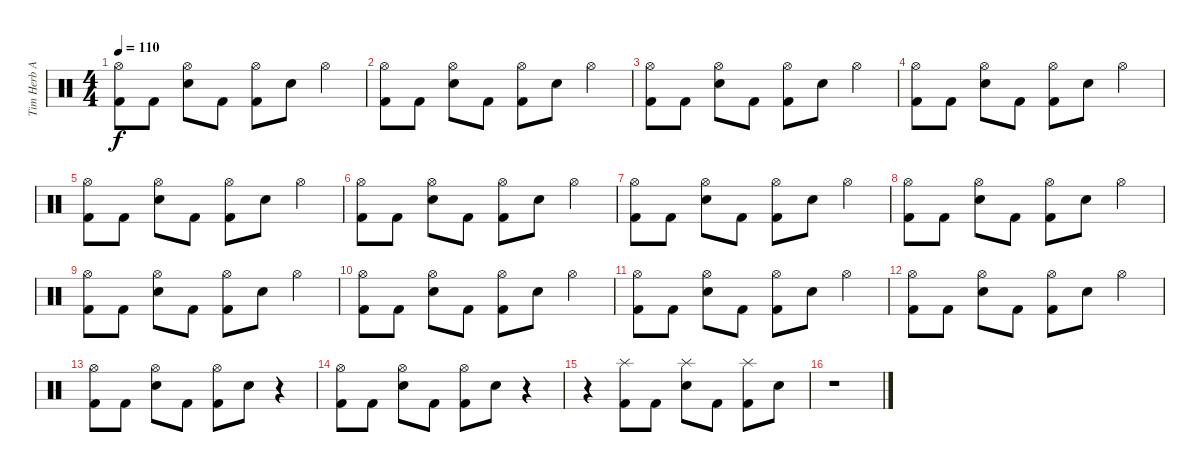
\track ("Tim Herb Alexander" "Tim Herb A") {instrument percussion}
\staff {score}
\articulation defaults
\ts (4 4)
\tempo 110
\clef neutral
\ks c
("Hi-Hat (open)" "Kick (hit) 2").8{dy f} "Kick (hit) 2".8 ("Hi-Hat (open)" "Snare (hit) 2").8 "Kick (hit) 2".8 ("Hi-Hat (open)" "Kick (hit) 2").8 "Snare (hit) 2".8 "Hi-Hat (open)".4 |
("Hi-Hat (open)" "Kick (hit) 2").8 "Kick (hit) 2".8 ("Hi-Hat (open)" "Snare (hit) 2").8 "Kick (hit) 2".8 ("Hi-Hat (open)" "Kick (hit) 2").8 "Snare (hit) 2".8 "Hi-Hat (open)".4 |
("Hi-Hat (open)" "Kick (hit) 2").8 "Kick (hit) 2".8 ("Hi-Hat (open)" "Snare (hit) 2").8 "Kick (hit) 2".8 ("Hi-Hat (open)" "Kick (hit) 2").8 "Snare (hit) 2".8 "Hi-Hat (open)".4 |
("Hi-Hat (open)" "Kick (hit) 2").8 "Kick (hit) 2".8 ("Hi-Hat (open)" "Snare (hit) 2").8 "Kick (hit) 2".8 ("Hi-Hat (open)" "Kick (hit) 2").8 "Snare (hit) 2".8 "Hi-Hat (open)".4 |
("Hi-Hat (open)" "Kick (hit) 2").8 "Kick (hit) 2".8 ("Hi-Hat (open)" "Snare (hit) 2").8 "Kick (hit) 2".8 ("Hi-Hat (open)" "Kick (hit) 2").8 "Snare (hit) 2".8 "Hi-Hat (open)".4 |
("Hi-Hat (open)" "Kick (hit) 2").8 "Kick (hit) 2".8 ("Hi-Hat (open)" "Snare (hit) 2").8 "Kick (hit) 2".8 ("Hi-Hat (open)" "Kick (hit) 2").8 "Snare (hit) 2".8 "Hi-Hat (open)".4 |
("Hi-Hat (open)" "Kick (hit) 2").8 "Kick (hit) 2".8 ("Hi-Hat (open)" "Snare (hit) 2").8 "Kick (hit) 2".8 ("Hi-Hat (open)" "Kick (hit) 2").8 "Snare (hit) 2".8 "Hi-Hat (open)".4 |
("Hi-Hat (open)" "Kick (hit) 2").8 "Kick (hit) 2".8 ("Hi-Hat (open)" "Snare (hit) 2").8 "Kick (hit) 2".8 ("Hi-Hat (open)" "Kick (hit) 2").8 "Snare (hit) 2".8 "Hi-Hat (open)".4 |
("Hi-Hat (open)" "Kick (hit) 2").8 "Kick (hit) 2".8 ("Hi-Hat (open)" "Snare (hit) 2").8 "Kick (hit) 2".8 ("Hi-Hat (open)" "Kick (hit) 2").8 "Snare (hit) 2".8 "Hi-Hat (open)".4 |
("Hi-Hat (open)" "Kick (hit) 2").8 "Kick (hit) 2".8 ("Hi-Hat (open)" "Snare (hit) 2").8 "Kick (hit) 2".8 ("Hi-Hat (open)" "Kick (hit) 2").8 "Snare (hit) 2".8 "Hi-Hat (open)".4 |
("Hi-Hat (open)" "Kick (hit) 2").8 "Kick (hit) 2".8 ("Hi-Hat (open)" "Snare (hit) 2").8 "Kick (hit) 2".8 ("Hi-Hat (open)" "Kick (hit) 2").8 "Snare (hit) 2".8 "Hi-Hat (open)".4 |
("Hi-Hat (open)" "Kick (hit) 2").8 "Kick (hit) 2".8 ("Hi-Hat (open)" "Snare (hit) 2").8 "Kick (hit) 2".8 ("Hi-Hat (open)" "Kick (hit) 2").8 "Snare (hit) 2".8 "Hi-Hat (open)".4 |
("Hi-Hat (open)" "Kick (hit) 2").8 "Kick (hit) 2".8 ("Hi-Hat (open)" "Snare (hit) 2").8 "Kick (hit) 2".8 ("Hi-Hat (open)" "Kick (hit) 2").8 "Snare (hit) 2".8 r.4 |
("Hi-Hat (open)" "Kick (hit) 2").8 "Kick (hit) 2".8 ("Hi-Hat (open)" "Snare (hit) 2").8 "Kick (hit) 2".8 ("Hi-Hat (open)" "Kick (hit) 2").8 "Snare (hit) 2".8 r.4 |
r.4 ("Splash (hit)" "Kick (hit) 2").8 "Kick (hit) 2".8 ("Splash (hit)" "Snare (hit) 2").8 "Kick (hit) 2".8 ("Splash (hit)" "Kick (hit) 2").8 "Snare (hit) 2".8 |
r.1
